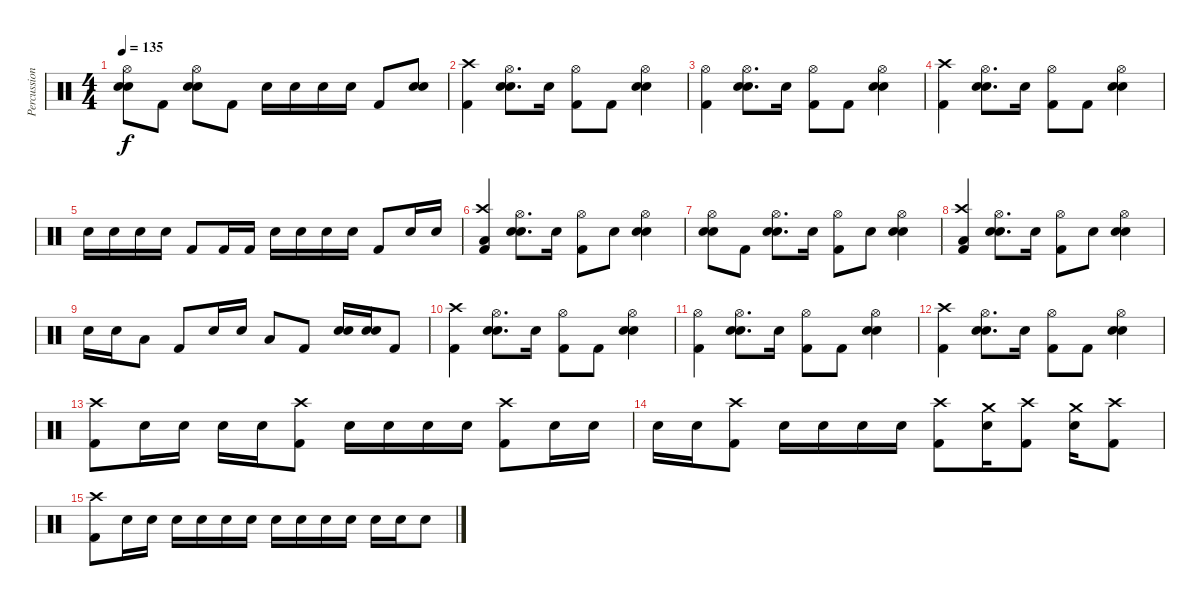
\track ("Percussion" "Percussion") {instrument percussion}
\staff {score}
\articulation defaults
\ts (4 4)
\tempo 135
\clef neutral
\ks c
("Hi-Hat (open)" "Snare (hit) 2" "Electric Snare (hit)").8{dy f} "Kick (hit) 2".8 ("Hi-Hat (open)" "Snare (hit) 2" "Electric Snare (hit)").8 "Kick (hit) 2".8 "Snare (hit) 2".16 "Snare (hit) 2".16 "Snare (hit) 2".16 "Snare (hit) 2".16 "Kick (hit) 2".8 ("Snare (hit) 2" "Electric Snare (hit)").8 |
("Crash high (hit)" "Kick (hit) 2").4 ("Hi-Hat (open)" "Snare (hit) 2" "Electric Snare (hit)").8{d} "Electric Snare (hit)".16 ("Hi-Hat (open)" "Kick (hit) 2").8 "Kick (hit) 2".8 ("Hi-Hat (open)" "Snare (hit) 2" "Electric Snare (hit)").4 |
("Hi-Hat (open)" "Kick (hit) 2").4 ("Hi-Hat (open)" "Snare (hit) 2" "Electric Snare (hit)").8{d} "Electric Snare (hit)".16 ("Hi-Hat (open)" "Kick (hit) 2").8 "Kick (hit) 2".8 ("Hi-Hat (open)" "Snare (hit) 2" "Electric Snare (hit)").4 |
("Crash high (hit)" "Kick (hit) 2").4 ("Hi-Hat (open)" "Snare (hit) 2" "Electric Snare (hit)").8{d} "Electric Snare (hit)".16 ("Hi-Hat (open)" "Kick (hit) 2").8 "Kick (hit) 2".8 ("Hi-Hat (open)" "Snare (hit) 2" "Electric Snare (hit)").4 |
"Snare (hit) 2".16 "Snare (hit) 2".16 "Snare (hit) 2".16 "Snare (hit) 2".16 "Kick (hit) 2".8 "Kick (hit) 2".16 "Kick (hit) 2".16 "Snare (hit) 2".16 "Snare (hit) 2".16 "Snare (hit) 2".16 "Snare (hit) 2".16 "Kick (hit) 2".8 "Snare (hit) 2".16 "Snare (hit) 2".16 |
("Crash high (hit)" "Low Floor Tom (hit)" "Kick (hit) 2").4 ("Hi-Hat (open)" "Snare (hit) 2" "Electric Snare (hit)").8{d} "Electric Snare (hit)".16 ("Hi-Hat (open)" "Kick (hit) 2").8 "Electric Snare (hit)".8 ("Hi-Hat (open)" "Snare (hit) 2" "Electric Snare (hit)").4 |
("Hi-Hat (open)" "Snare (hit) 2" "Electric Snare (hit)").8 "Kick (hit) 2".8 ("Hi-Hat (open)" "Snare (hit) 2" "Electric Snare (hit)").8{d} "Electric Snare (hit)".16 ("Hi-Hat (open)" "Kick (hit) 2").8 "Electric Snare (hit)".8 ("Hi-Hat (open)" "Snare (hit) 2" "Electric Snare (hit)").4 |
("Crash high (hit)" "Low Floor Tom (hit)" "Kick (hit) 2").4 ("Hi-Hat (open)" "Snare (hit) 2" "Electric Snare (hit)").8{d} "Electric Snare (hit)".16 ("Hi-Hat (open)" "Kick (hit) 2").8 "Electric Snare (hit)".8 ("Hi-Hat (open)" "Snare (hit) 2" "Electric Snare (hit)").4 |
"Snare (hit) 2".16 "Snare (hit) 2".16 "Low Floor Tom (hit)".8 "Kick (hit) 2".8 "Snare (hit) 2".16 "Snare (hit) 2".16 "Low Floor Tom (hit)".8 "Kick (hit) 2".8 ("Snare (hit) 2" "Electric Snare (hit)").16 ("Snare (hit) 2" "Electric Snare (hit)").16 "Kick (hit) 2".8 |
("Crash high (hit)" "Kick (hit) 2").4 ("Hi-Hat (open)" "Snare (hit) 2" "Electric Snare (hit)").8{d} "Electric Snare (hit)".16 ("Hi-Hat (open)" "Kick (hit) 2").8 "Kick (hit) 2".8 ("Hi-Hat (open)" "Snare (hit) 2" "Electric Snare (hit)").4 |
("Hi-Hat (open)" "Kick (hit) 2").4 ("Hi-Hat (open)" "Snare (hit) 2" "Electric Snare (hit)").8{d} "Electric Snare (hit)".16 ("Hi-Hat (open)" "Kick (hit) 2").8 "Kick (hit) 2".8 ("Hi-Hat (open)" "Snare (hit) 2" "Electric Snare (hit)").4 |
("Crash high (hit)" "Kick (hit) 2").4 ("Hi-Hat (open)" "Snare (hit) 2" "Electric Snare (hit)").8{d} "Electric Snare (hit)".16 ("Hi-Hat (open)" "Kick (hit) 2").8 "Kick (hit) 2".8 ("Hi-Hat (open)" "Snare (hit) 2" "Electric Snare (hit)").4 |
("Crash high (hit)" "Kick (hit) 2").8 "Snare (hit) 2".16 "Snare (hit) 2".16 "Snare (hit) 2".16 "Snare (hit) 2".16 ("Crash high (hit)" "Kick (hit) 2").8 "Snare (hit) 2".16 "Snare (hit) 2".16 "Snare (hit) 2".16 "Snare (hit) 2".16 ("Crash high (hit)" "Kick (hit) 2").8 "Snare (hit) 2".16 "Snare (hit) 2".16 |
"Snare (hit) 2".16 "Snare (hit) 2".16 ("Crash high (hit)" "Kick (hit) 2").8 "Snare (hit) 2".16 "Snare (hit) 2".16 "Snare (hit) 2".16 "Snare (hit) 2".16 ("Crash high (hit)" "Kick (hit) 2").8 ("Crash medium (hit)" "Snare (hit) 2").16 ("Crash high (hit)" "Kick (hit) 2").8 ("Crash medium (hit)" "Snare (hit) 2").16 ("Crash high (hit)" "Kick (hit) 2").8 |
("Crash high (hit)" "Kick (hit) 2").8 "Snare (hit) 2".16 "Snare (hit) 2".16 "Snare (hit) 2".16 "Snare (hit) 2".16 "Snare (hit) 2".16 "Snare (hit) 2".16 "Snare (hit) 2".16 "Snare (hit) 2".16 "Snare (hit) 2".16 "Snare (hit) 2".16 "Snare (hit) 2".16 "Snare (hit) 2".16 "Snare (hit) 2".8
